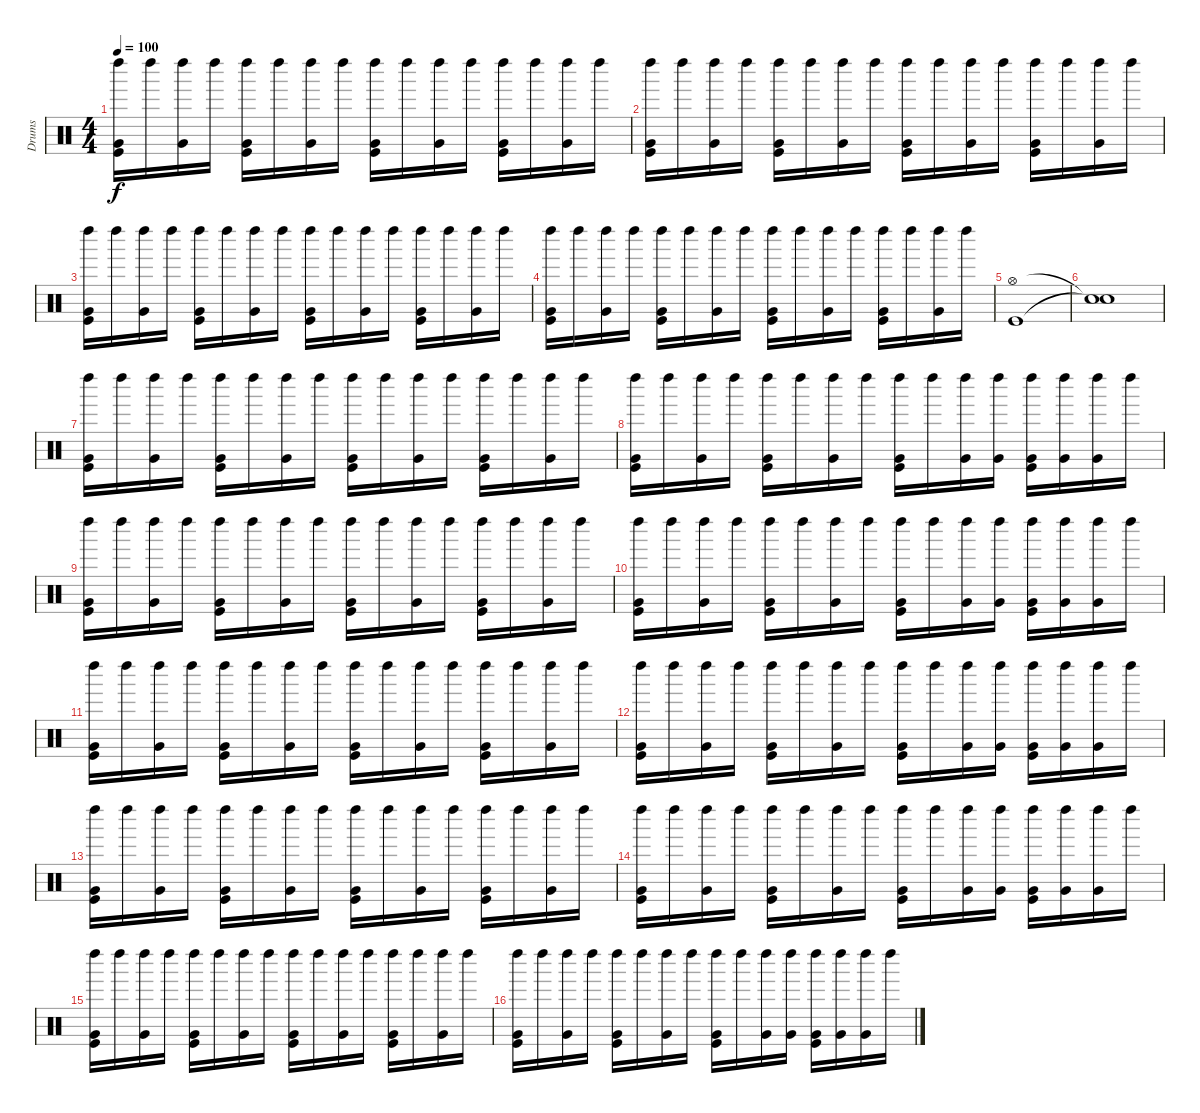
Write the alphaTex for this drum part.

\track ("Drums" "Drums") {instrument percussion}
\staff {score}
\articulation defaults
\ts (4 4)
\tempo 100
\clef neutral
\ks c
("Kick (hit)" "Very Low Tom (hit)" "Left Maraca (hit)").16{dy f} "Left Maraca (hit)".16 ("Very Low Tom (hit)" "Left Maraca (hit)").16 "Left Maraca (hit)".16 ("Kick (hit)" "Very Low Tom (hit)" "Left Maraca (hit)").16 "Left Maraca (hit)".16 ("Very Low Tom (hit)" "Left Maraca (hit)").16 "Left Maraca (hit)".16 ("Kick (hit)" "Very Low Tom (hit)" "Left Maraca (hit)").16 "Left Maraca (hit)".16 ("Very Low Tom (hit)" "Left Maraca (hit)").16 "Left Maraca (hit)".16 ("Kick (hit)" "Very Low Tom (hit)" "Left Maraca (hit)").16 "Left Maraca (hit)".16 ("Very Low Tom (hit)" "Left Maraca (hit)").16 "Left Maraca (hit)".16 |
("Kick (hit)" "Very Low Tom (hit)" "Left Maraca (hit)").16 "Left Maraca (hit)".16 ("Very Low Tom (hit)" "Left Maraca (hit)").16 "Left Maraca (hit)".16 ("Kick (hit)" "Very Low Tom (hit)" "Left Maraca (hit)").16 "Left Maraca (hit)".16 ("Very Low Tom (hit)" "Left Maraca (hit)").16 "Left Maraca (hit)".16 ("Kick (hit)" "Very Low Tom (hit)" "Left Maraca (hit)").16 "Left Maraca (hit)".16 ("Very Low Tom (hit)" "Left Maraca (hit)").16 "Left Maraca (hit)".16 ("Kick (hit)" "Very Low Tom (hit)" "Left Maraca (hit)").16 "Left Maraca (hit)".16 ("Very Low Tom (hit)" "Left Maraca (hit)").16 "Left Maraca (hit)".16 |
("Kick (hit)" "Very Low Tom (hit)" "Left Maraca (hit)").16 "Left Maraca (hit)".16 ("Very Low Tom (hit)" "Left Maraca (hit)").16 "Left Maraca (hit)".16 ("Kick (hit)" "Very Low Tom (hit)" "Left Maraca (hit)").16 "Left Maraca (hit)".16 ("Very Low Tom (hit)" "Left Maraca (hit)").16 "Left Maraca (hit)".16 ("Kick (hit)" "Very Low Tom (hit)" "Left Maraca (hit)").16 "Left Maraca (hit)".16 ("Very Low Tom (hit)" "Left Maraca (hit)").16 "Left Maraca (hit)".16 ("Kick (hit)" "Very Low Tom (hit)" "Left Maraca (hit)").16 "Left Maraca (hit)".16 ("Very Low Tom (hit)" "Left Maraca (hit)").16 "Left Maraca (hit)".16 |
("Kick (hit)" "Very Low Tom (hit)" "Left Maraca (hit)").16 "Left Maraca (hit)".16 ("Very Low Tom (hit)" "Left Maraca (hit)").16 "Left Maraca (hit)".16 ("Kick (hit)" "Very Low Tom (hit)" "Left Maraca (hit)").16 "Left Maraca (hit)".16 ("Very Low Tom (hit)" "Left Maraca (hit)").16 "Left Maraca (hit)".16 ("Kick (hit)" "Very Low Tom (hit)" "Left Maraca (hit)").16 "Left Maraca (hit)".16 ("Very Low Tom (hit)" "Left Maraca (hit)").16 "Left Maraca (hit)".16 ("Kick (hit)" "Very Low Tom (hit)" "Left Maraca (hit)").16 "Left Maraca (hit)".16 ("Very Low Tom (hit)" "Left Maraca (hit)").16 "Left Maraca (hit)".16 |
("Kick (hit)" "Hi-Hat (open)").1 |
("Snare (hit)"{t} "Snare (hit)"{t}).1 |
("Very Low Tom (hit)" "Kick (hit)" "Left Maraca (hit)").16 "Left Maraca (hit)".16 ("Very Low Tom (hit)" "Left Maraca (hit)").16 "Left Maraca (hit)".16 ("Kick (hit)" "Very Low Tom (hit)" "Left Maraca (hit)").16 "Left Maraca (hit)".16 ("Very Low Tom (hit)" "Left Maraca (hit)").16 "Left Maraca (hit)".16 ("Kick (hit)" "Very Low Tom (hit)" "Left Maraca (hit)").16 "Left Maraca (hit)".16 ("Very Low Tom (hit)" "Left Maraca (hit)").16 "Left Maraca (hit)".16 ("Kick (hit)" "Very Low Tom (hit)" "Left Maraca (hit)").16 "Left Maraca (hit)".16 ("Very Low Tom (hit)" "Left Maraca (hit)").16 "Left Maraca (hit)".16 |
("Very Low Tom (hit)" "Kick (hit)" "Left Maraca (hit)").16 "Left Maraca (hit)".16 ("Very Low Tom (hit)" "Left Maraca (hit)").16 "Left Maraca (hit)".16 ("Kick (hit)" "Very Low Tom (hit)" "Left Maraca (hit)").16 "Left Maraca (hit)".16 ("Very Low Tom (hit)" "Left Maraca (hit)").16 "Left Maraca (hit)".16 ("Very Low Tom (hit)" "Kick (hit)" "Left Maraca (hit)").16 "Left Maraca (hit)".16 ("Very Low Tom (hit)" "Left Maraca (hit)").16 ("Very Low Tom (hit)" "Left Maraca (hit)").16 ("Very Low Tom (hit)" "Kick (hit)" "Left Maraca (hit)").16 ("Very Low Tom (hit)" "Left Maraca (hit)").16 ("Very Low Tom (hit)" "Left Maraca (hit)").16 "Left Maraca (hit)".16 |
("Very Low Tom (hit)" "Kick (hit)" "Left Maraca (hit)").16 "Left Maraca (hit)".16 ("Very Low Tom (hit)" "Left Maraca (hit)").16 "Left Maraca (hit)".16 ("Kick (hit)" "Very Low Tom (hit)" "Left Maraca (hit)").16 "Left Maraca (hit)".16 ("Very Low Tom (hit)" "Left Maraca (hit)").16 "Left Maraca (hit)".16 ("Kick (hit)" "Very Low Tom (hit)" "Left Maraca (hit)").16 "Left Maraca (hit)".16 ("Very Low Tom (hit)" "Left Maraca (hit)").16 "Left Maraca (hit)".16 ("Kick (hit)" "Very Low Tom (hit)" "Left Maraca (hit)").16 "Left Maraca (hit)".16 ("Very Low Tom (hit)" "Left Maraca (hit)").16 "Left Maraca (hit)".16 |
("Very Low Tom (hit)" "Kick (hit)" "Left Maraca (hit)").16 "Left Maraca (hit)".16 ("Very Low Tom (hit)" "Left Maraca (hit)").16 "Left Maraca (hit)".16 ("Kick (hit)" "Very Low Tom (hit)" "Left Maraca (hit)").16 "Left Maraca (hit)".16 ("Very Low Tom (hit)" "Left Maraca (hit)").16 "Left Maraca (hit)".16 ("Very Low Tom (hit)" "Kick (hit)" "Left Maraca (hit)").16 "Left Maraca (hit)".16 ("Very Low Tom (hit)" "Left Maraca (hit)").16 ("Very Low Tom (hit)" "Left Maraca (hit)").16 ("Very Low Tom (hit)" "Kick (hit)" "Left Maraca (hit)").16 ("Very Low Tom (hit)" "Left Maraca (hit)").16 ("Very Low Tom (hit)" "Left Maraca (hit)").16 "Left Maraca (hit)".16 |
("Kick (hit)" "Very Low Tom (hit)" "Left Maraca (hit)").16{volume 9} "Left Maraca (hit)".16 ("Very Low Tom (hit)" "Left Maraca (hit)").16 "Left Maraca (hit)".16 ("Kick (hit)" "Very Low Tom (hit)" "Left Maraca (hit)").16 "Left Maraca (hit)".16 ("Very Low Tom (hit)" "Left Maraca (hit)").16 "Left Maraca (hit)".16 ("Kick (hit)" "Very Low Tom (hit)" "Left Maraca (hit)").16 "Left Maraca (hit)".16 ("Very Low Tom (hit)" "Left Maraca (hit)").16 "Left Maraca (hit)".16 ("Kick (hit)" "Very Low Tom (hit)" "Left Maraca (hit)").16 "Left Maraca (hit)".16 ("Very Low Tom (hit)" "Left Maraca (hit)").16 "Left Maraca (hit)".16 |
("Very Low Tom (hit)" "Kick (hit)" "Left Maraca (hit)").16 "Left Maraca (hit)".16 ("Very Low Tom (hit)" "Left Maraca (hit)").16 "Left Maraca (hit)".16 ("Kick (hit)" "Very Low Tom (hit)" "Left Maraca (hit)").16 "Left Maraca (hit)".16 ("Very Low Tom (hit)" "Left Maraca (hit)").16 "Left Maraca (hit)".16 ("Very Low Tom (hit)" "Kick (hit)" "Left Maraca (hit)").16 "Left Maraca (hit)".16 ("Very Low Tom (hit)" "Left Maraca (hit)").16 ("Very Low Tom (hit)" "Left Maraca (hit)").16 ("Very Low Tom (hit)" "Kick (hit)" "Left Maraca (hit)").16 ("Very Low Tom (hit)" "Left Maraca (hit)").16 ("Very Low Tom (hit)" "Left Maraca (hit)").16 "Left Maraca (hit)".16 |
("Very Low Tom (hit)" "Kick (hit)" "Left Maraca (hit)").16{volume 6} "Left Maraca (hit)".16 ("Very Low Tom (hit)" "Left Maraca (hit)").16 "Left Maraca (hit)".16 ("Kick (hit)" "Very Low Tom (hit)" "Left Maraca (hit)").16 "Left Maraca (hit)".16 ("Very Low Tom (hit)" "Left Maraca (hit)").16 "Left Maraca (hit)".16 ("Kick (hit)" "Very Low Tom (hit)" "Left Maraca (hit)").16 "Left Maraca (hit)".16 ("Very Low Tom (hit)" "Left Maraca (hit)").16 "Left Maraca (hit)".16 ("Kick (hit)" "Very Low Tom (hit)" "Left Maraca (hit)").16 "Left Maraca (hit)".16 ("Very Low Tom (hit)" "Left Maraca (hit)").16 "Left Maraca (hit)".16 |
("Very Low Tom (hit)" "Kick (hit)" "Left Maraca (hit)").16 "Left Maraca (hit)".16 ("Very Low Tom (hit)" "Left Maraca (hit)").16 "Left Maraca (hit)".16 ("Kick (hit)" "Very Low Tom (hit)" "Left Maraca (hit)").16 "Left Maraca (hit)".16 ("Very Low Tom (hit)" "Left Maraca (hit)").16 "Left Maraca (hit)".16 ("Very Low Tom (hit)" "Kick (hit)" "Left Maraca (hit)").16 "Left Maraca (hit)".16 ("Very Low Tom (hit)" "Left Maraca (hit)").16 ("Very Low Tom (hit)" "Left Maraca (hit)").16 ("Very Low Tom (hit)" "Kick (hit)" "Left Maraca (hit)").16 ("Very Low Tom (hit)" "Left Maraca (hit)").16 ("Very Low Tom (hit)" "Left Maraca (hit)").16 "Left Maraca (hit)".16 |
("Very Low Tom (hit)" "Kick (hit)" "Left Maraca (hit)").16{volume 4} "Left Maraca (hit)".16 ("Very Low Tom (hit)" "Left Maraca (hit)").16 "Left Maraca (hit)".16 ("Kick (hit)" "Very Low Tom (hit)" "Left Maraca (hit)").16 "Left Maraca (hit)".16 ("Very Low Tom (hit)" "Left Maraca (hit)").16 "Left Maraca (hit)".16 ("Kick (hit)" "Very Low Tom (hit)" "Left Maraca (hit)").16 "Left Maraca (hit)".16 ("Very Low Tom (hit)" "Left Maraca (hit)").16 "Left Maraca (hit)".16 ("Kick (hit)" "Very Low Tom (hit)" "Left Maraca (hit)").16 "Left Maraca (hit)".16 ("Very Low Tom (hit)" "Left Maraca (hit)").16 "Left Maraca (hit)".16 |
("Very Low Tom (hit)" "Kick (hit)" "Left Maraca (hit)").16 "Left Maraca (hit)".16 ("Very Low Tom (hit)" "Left Maraca (hit)").16 "Left Maraca (hit)".16 ("Kick (hit)" "Very Low Tom (hit)" "Left Maraca (hit)").16 "Left Maraca (hit)".16 ("Very Low Tom (hit)" "Left Maraca (hit)").16 "Left Maraca (hit)".16 ("Very Low Tom (hit)" "Kick (hit)" "Left Maraca (hit)").16 "Left Maraca (hit)".16 ("Very Low Tom (hit)" "Left Maraca (hit)").16 ("Very Low Tom (hit)" "Left Maraca (hit)").16 ("Very Low Tom (hit)" "Kick (hit)" "Left Maraca (hit)").16 ("Very Low Tom (hit)" "Left Maraca (hit)").16 ("Very Low Tom (hit)" "Left Maraca (hit)").16 "Left Maraca (hit)".16
